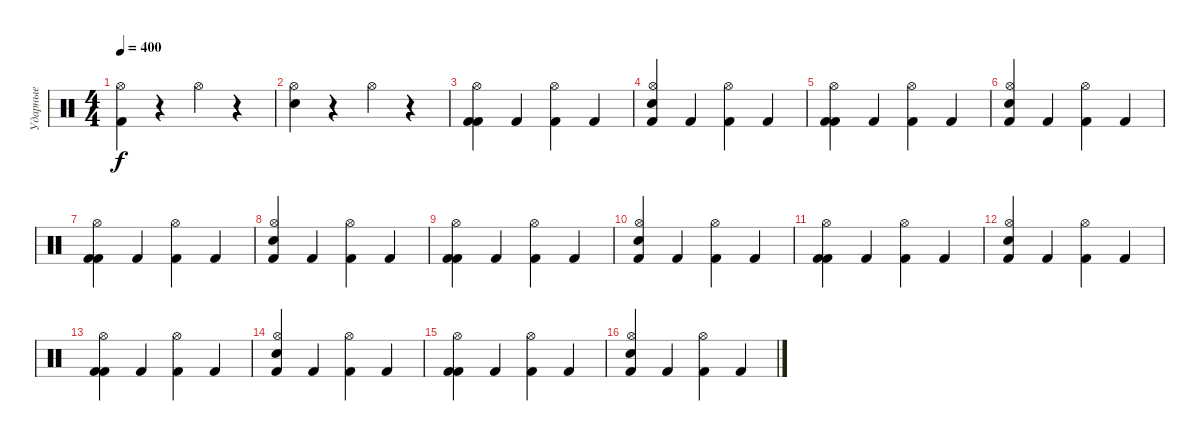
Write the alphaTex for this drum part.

\track ("Ударные" "Ударные") {instrument percussion}
\staff {score}
\articulation defaults
\ts (4 4)
\tempo 400
\clef neutral
\ks c
("Kick (hit) 2" "Hi-Hat (open)").4{dy f} r.4 "Hi-Hat (open)".4 r.4 |
("Electric Snare (hit)" "Hi-Hat (open)").4 r.4 "Hi-Hat (open)".4 r.4 |
("Kick (hit) 2" "Hi-Hat (open)" "Kick (hit) 2").4 "Kick (hit) 2".4 ("Hi-Hat (open)" "Kick (hit) 2").4 "Kick (hit) 2".4 |
("Electric Snare (hit)" "Hi-Hat (open)" "Kick (hit) 2").4 "Kick (hit) 2".4 ("Hi-Hat (open)" "Kick (hit) 2").4 "Kick (hit) 2".4 |
("Kick (hit) 2" "Hi-Hat (open)" "Kick (hit) 2").4 "Kick (hit) 2".4 ("Hi-Hat (open)" "Kick (hit) 2").4 "Kick (hit) 2".4 |
("Kick (hit) 2" "Electric Snare (hit)" "Hi-Hat (open)").4 "Kick (hit) 2".4 ("Hi-Hat (open)" "Kick (hit) 2").4 "Kick (hit) 2".4 |
("Kick (hit) 2" "Hi-Hat (open)" "Kick (hit) 2").4 "Kick (hit) 2".4 ("Hi-Hat (open)" "Kick (hit) 2").4 "Kick (hit) 2".4 |
("Electric Snare (hit)" "Hi-Hat (open)" "Kick (hit) 2").4 "Kick (hit) 2".4 ("Hi-Hat (open)" "Kick (hit) 2").4 "Kick (hit) 2".4 |
("Kick (hit) 2" "Hi-Hat (open)" "Kick (hit) 2").4 "Kick (hit) 2".4 ("Hi-Hat (open)" "Kick (hit) 2").4 "Kick (hit) 2".4 |
("Kick (hit) 2" "Electric Snare (hit)" "Hi-Hat (open)").4 "Kick (hit) 2".4 ("Hi-Hat (open)" "Kick (hit) 2").4 "Kick (hit) 2".4 |
("Kick (hit) 2" "Hi-Hat (open)" "Kick (hit) 2").4 "Kick (hit) 2".4 ("Hi-Hat (open)" "Kick (hit) 2").4 "Kick (hit) 2".4 |
("Electric Snare (hit)" "Hi-Hat (open)" "Kick (hit) 2").4 "Kick (hit) 2".4 ("Hi-Hat (open)" "Kick (hit) 2").4 "Kick (hit) 2".4 |
("Kick (hit) 2" "Hi-Hat (open)" "Kick (hit) 2").4 "Kick (hit) 2".4 ("Hi-Hat (open)" "Kick (hit) 2").4 "Kick (hit) 2".4 |
("Kick (hit) 2" "Electric Snare (hit)" "Hi-Hat (open)").4 "Kick (hit) 2".4 ("Hi-Hat (open)" "Kick (hit) 2").4 "Kick (hit) 2".4 |
("Kick (hit) 2" "Hi-Hat (open)" "Kick (hit) 2").4 "Kick (hit) 2".4 ("Hi-Hat (open)" "Kick (hit) 2").4 "Kick (hit) 2".4 |
("Electric Snare (hit)" "Hi-Hat (open)" "Kick (hit) 2").4 "Kick (hit) 2".4 ("Hi-Hat (open)" "Kick (hit) 2").4 "Kick (hit) 2".4
